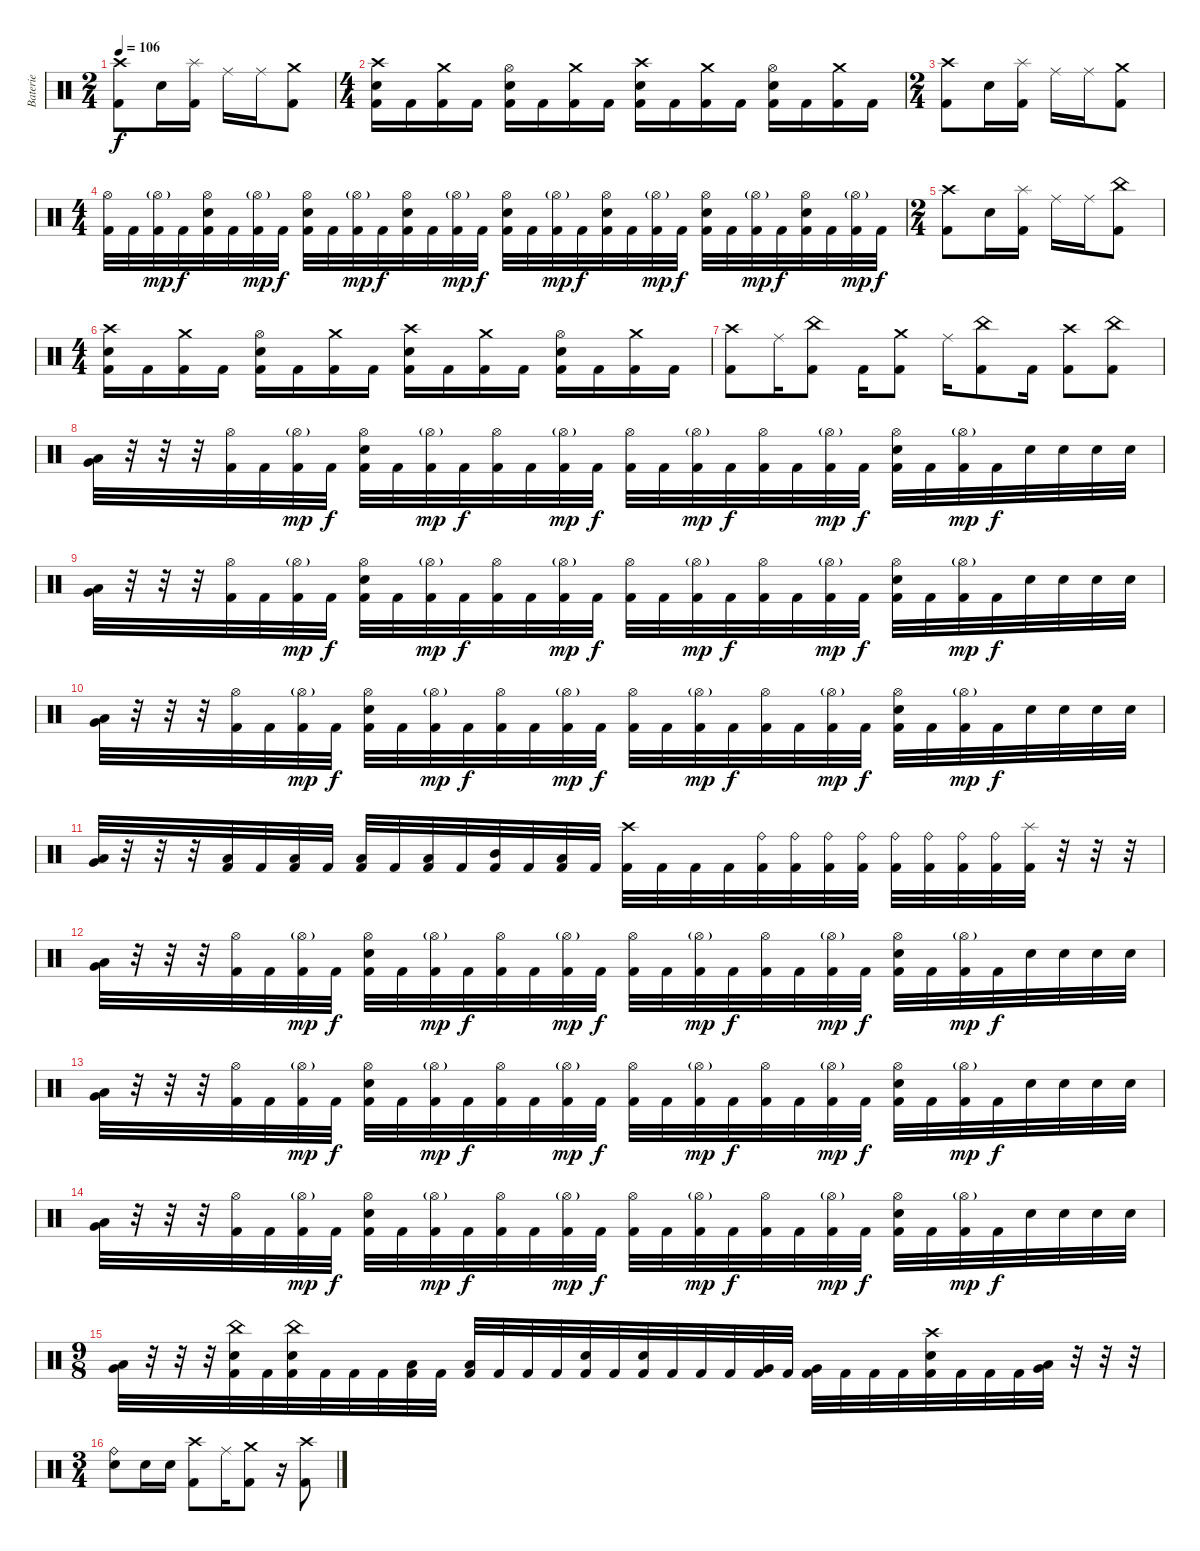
\track ("Baterie" "Baterie") {instrument percussion}
\staff {score}
\articulation defaults
\ts (2 4)
\tempo 106
\clef neutral
\ks c
("Crash high (hit)" "Kick (hit) 2").8{dy f} "Electric Snare (hit)".16 ("Splash (hit)" "Kick (hit) 2").16 "Ride (middle)".16 "Ride (middle)".16 ("Crash medium (hit)" "Kick (hit) 2").8 |
\ts (4 4)
("Crash high (hit)" "Kick (hit) 2" "Electric Snare (hit)").16 "Kick (hit) 2".16 ("Crash medium (hit)" "Kick (hit) 2").16 "Kick (hit) 2".16 ("Hi-Hat (open)" "Kick (hit) 2" "Electric Snare (hit)").16 "Kick (hit) 2".16 ("Crash medium (hit)" "Kick (hit) 2").16 "Kick (hit) 2".16 ("Crash high (hit)" "Kick (hit) 2" "Electric Snare (hit)").16 "Kick (hit) 2".16 ("Crash medium (hit)" "Kick (hit) 2").16 "Kick (hit) 2".16 ("Hi-Hat (open)" "Kick (hit) 2" "Electric Snare (hit)").16 "Kick (hit) 2".16 ("Crash medium (hit)" "Kick (hit) 2").16 "Kick (hit) 2".16 |
\ts (2 4)
("Crash high (hit)" "Kick (hit) 2").8 "Electric Snare (hit)".16 ("Splash (hit)" "Kick (hit) 2").16 "Ride (middle)".16 "Ride (middle)".16 ("Crash medium (hit)" "Kick (hit) 2").8 |
\ts (4 4)
("Hi-Hat (open)" "Kick (hit) 2").32 "Kick (hit) 2".32 ("Hi-Hat (open)"{g} "Kick (hit) 2").32{dy mp} "Kick (hit) 2".32{dy f} ("Hi-Hat (open)" "Electric Snare (hit)" "Kick (hit) 2").32 "Kick (hit) 2".32 ("Hi-Hat (open)"{g} "Kick (hit) 2").32{dy mp} "Kick (hit) 2".32{dy f} ("Hi-Hat (open)" "Electric Snare (hit)" "Kick (hit) 2").32 "Kick (hit) 2".32 ("Hi-Hat (open)"{g} "Kick (hit) 2").32{dy mp} "Kick (hit) 2".32{dy f} ("Hi-Hat (open)" "Electric Snare (hit)" "Kick (hit) 2").32 "Kick (hit) 2".32 ("Hi-Hat (open)"{g} "Kick (hit) 2").32{dy mp} "Kick (hit) 2".32{dy f} ("Hi-Hat (open)" "Electric Snare (hit)" "Kick (hit) 2").32 "Kick (hit) 2".32 ("Hi-Hat (open)"{g} "Kick (hit) 2").32{dy mp} "Kick (hit) 2".32{dy f} ("Hi-Hat (open)" "Electric Snare (hit)" "Kick (hit) 2").32 "Kick (hit) 2".32 ("Hi-Hat (open)"{g} "Kick (hit) 2").32{dy mp} "Kick (hit) 2".32{dy f} ("Hi-Hat (open)" "Electric Snare (hit)" "Kick (hit) 2").32 "Kick (hit) 2".32 ("Hi-Hat (open)"{g} "Kick (hit) 2").32{dy mp} "Kick (hit) 2".32{dy f} ("Hi-Hat (open)" "Electric Snare (hit)" "Kick (hit) 2").32 "Kick (hit) 2".32 ("Hi-Hat (open)"{g} "Kick (hit) 2").32{dy mp} "Kick (hit) 2".32{dy f} |
\ts (2 4)
("Crash high (hit)" "Kick (hit) 2").8 "Electric Snare (hit)".16 ("Splash (hit)" "Kick (hit) 2").16 "Ride (middle)".16 "Ride (middle)".16 ("China (hit)" "Kick (hit) 2").8 |
\ts (4 4)
("Crash high (hit)" "Kick (hit) 2" "Electric Snare (hit)").16 "Kick (hit) 2".16 ("Crash medium (hit)" "Kick (hit) 2").16 "Kick (hit) 2".16 ("Hi-Hat (open)" "Kick (hit) 2" "Electric Snare (hit)").16 "Kick (hit) 2".16 ("Crash medium (hit)" "Kick (hit) 2").16 "Kick (hit) 2".16 ("Crash high (hit)" "Kick (hit) 2" "Electric Snare (hit)").16 "Kick (hit) 2".16 ("Crash medium (hit)" "Kick (hit) 2").16 "Kick (hit) 2".16 ("Hi-Hat (open)" "Kick (hit) 2" "Electric Snare (hit)").16 "Kick (hit) 2".16 ("Crash medium (hit)" "Kick (hit) 2").16 "Kick (hit) 2".16 |
("Crash high (hit)" "Kick (hit) 2").8 "Ride (middle)".16 ("China (hit)" "Kick (hit) 2").8 "Kick (hit) 2".16 ("Crash medium (hit)" "Kick (hit) 2").8 "Ride (middle)".16 ("China (hit)" "Kick (hit) 2").8 "Kick (hit) 2".16 ("Crash high (hit)" "Kick (hit) 2").8 ("China (hit)" "Kick (hit) 2").8 |
("Very Low Tom (hit)" "Low Tom (hit)").32 r.32 r.32 r.32 ("Hi-Hat (open)" "Kick (hit) 2").32 "Kick (hit) 2".32 ("Hi-Hat (open)"{g} "Kick (hit) 2").32{dy mp} "Kick (hit) 2".32{dy f} ("Hi-Hat (open)" "Electric Snare (hit)" "Kick (hit) 2").32 "Kick (hit) 2".32 ("Hi-Hat (open)"{g} "Kick (hit) 2").32{dy mp} "Kick (hit) 2".32{dy f} ("Hi-Hat (open)" "Kick (hit) 2").32 "Kick (hit) 2".32 ("Hi-Hat (open)"{g} "Kick (hit) 2").32{dy mp} "Kick (hit) 2".32{dy f} ("Hi-Hat (open)" "Kick (hit) 2").32 "Kick (hit) 2".32 ("Hi-Hat (open)"{g} "Kick (hit) 2").32{dy mp} "Kick (hit) 2".32{dy f} ("Hi-Hat (open)" "Kick (hit) 2").32 "Kick (hit) 2".32 ("Hi-Hat (open)"{g} "Kick (hit) 2").32{dy mp} "Kick (hit) 2".32{dy f} ("Hi-Hat (open)" "Electric Snare (hit)" "Kick (hit) 2").32 "Kick (hit) 2".32 ("Hi-Hat (open)"{g} "Kick (hit) 2").32{dy mp} "Kick (hit) 2".32{dy f} "Electric Snare (hit)".32 "Electric Snare (hit)".32 "Electric Snare (hit)".32 "Electric Snare (hit)".32 |
("Very Low Tom (hit)" "Low Tom (hit)").32 r.32 r.32 r.32 ("Hi-Hat (open)" "Kick (hit) 2").32 "Kick (hit) 2".32 ("Hi-Hat (open)"{g} "Kick (hit) 2").32{dy mp} "Kick (hit) 2".32{dy f} ("Hi-Hat (open)" "Electric Snare (hit)" "Kick (hit) 2").32 "Kick (hit) 2".32 ("Hi-Hat (open)"{g} "Kick (hit) 2").32{dy mp} "Kick (hit) 2".32{dy f} ("Hi-Hat (open)" "Kick (hit) 2").32 "Kick (hit) 2".32 ("Hi-Hat (open)"{g} "Kick (hit) 2").32{dy mp} "Kick (hit) 2".32{dy f} ("Hi-Hat (open)" "Kick (hit) 2").32 "Kick (hit) 2".32 ("Hi-Hat (open)"{g} "Kick (hit) 2").32{dy mp} "Kick (hit) 2".32{dy f} ("Hi-Hat (open)" "Kick (hit) 2").32 "Kick (hit) 2".32 ("Hi-Hat (open)"{g} "Kick (hit) 2").32{dy mp} "Kick (hit) 2".32{dy f} ("Hi-Hat (open)" "Electric Snare (hit)" "Kick (hit) 2").32 "Kick (hit) 2".32 ("Hi-Hat (open)"{g} "Kick (hit) 2").32{dy mp} "Kick (hit) 2".32{dy f} "Electric Snare (hit)".32 "Electric Snare (hit)".32 "Electric Snare (hit)".32 "Electric Snare (hit)".32 |
("Very Low Tom (hit)" "Low Tom (hit)").32 r.32 r.32 r.32 ("Hi-Hat (open)" "Kick (hit) 2").32 "Kick (hit) 2".32 ("Hi-Hat (open)"{g} "Kick (hit) 2").32{dy mp} "Kick (hit) 2".32{dy f} ("Hi-Hat (open)" "Electric Snare (hit)" "Kick (hit) 2").32 "Kick (hit) 2".32 ("Hi-Hat (open)"{g} "Kick (hit) 2").32{dy mp} "Kick (hit) 2".32{dy f} ("Hi-Hat (open)" "Kick (hit) 2").32 "Kick (hit) 2".32 ("Hi-Hat (open)"{g} "Kick (hit) 2").32{dy mp} "Kick (hit) 2".32{dy f} ("Hi-Hat (open)" "Kick (hit) 2").32 "Kick (hit) 2".32 ("Hi-Hat (open)"{g} "Kick (hit) 2").32{dy mp} "Kick (hit) 2".32{dy f} ("Hi-Hat (open)" "Kick (hit) 2").32 "Kick (hit) 2".32 ("Hi-Hat (open)"{g} "Kick (hit) 2").32{dy mp} "Kick (hit) 2".32{dy f} ("Hi-Hat (open)" "Electric Snare (hit)" "Kick (hit) 2").32 "Kick (hit) 2".32 ("Hi-Hat (open)"{g} "Kick (hit) 2").32{dy mp} "Kick (hit) 2".32{dy f} "Electric Snare (hit)".32 "Electric Snare (hit)".32 "Electric Snare (hit)".32 "Electric Snare (hit)".32 |
("Very Low Tom (hit)" "Low Tom (hit)").32 r.32 r.32 r.32 ("Low Tom (hit)" "Kick (hit) 2").32 "Kick (hit) 2".32 ("Low Tom (hit)" "Kick (hit) 2").32 "Kick (hit) 2".32 ("Low Tom (hit)" "Kick (hit) 2").32 "Kick (hit) 2".32 ("Low Tom (hit)" "Kick (hit) 2").32 "Kick (hit) 2".32 ("Mid Tom (hit)" "Kick (hit) 2").32 "Kick (hit) 2".32 ("Low Tom (hit)" "Kick (hit) 2").32 "Kick (hit) 2".32 ("Crash high (hit)" "Kick (hit) 2").32 "Kick (hit) 2".32 "Kick (hit) 2".32 "Kick (hit) 2".32 ("Ride (bell)" "Kick (hit) 2").32 ("Ride (bell)" "Kick (hit) 2").32 ("Ride (bell)" "Kick (hit) 2").32 ("Ride (bell)" "Kick (hit) 2").32 ("Ride (bell)" "Kick (hit) 2").32 ("Ride (bell)" "Kick (hit) 2").32 ("Ride (bell)" "Kick (hit) 2").32 ("Ride (bell)" "Kick (hit) 2").32 ("Splash (hit)" "Kick (hit) 2").32 r.32 r.32 r.32 |
("Very Low Tom (hit)" "Low Tom (hit)").32 r.32 r.32 r.32 ("Hi-Hat (open)" "Kick (hit) 2").32 "Kick (hit) 2".32 ("Hi-Hat (open)"{g} "Kick (hit) 2").32{dy mp} "Kick (hit) 2".32{dy f} ("Hi-Hat (open)" "Electric Snare (hit)" "Kick (hit) 2").32 "Kick (hit) 2".32 ("Hi-Hat (open)"{g} "Kick (hit) 2").32{dy mp} "Kick (hit) 2".32{dy f} ("Hi-Hat (open)" "Kick (hit) 2").32 "Kick (hit) 2".32 ("Hi-Hat (open)"{g} "Kick (hit) 2").32{dy mp} "Kick (hit) 2".32{dy f} ("Hi-Hat (open)" "Kick (hit) 2").32 "Kick (hit) 2".32 ("Hi-Hat (open)"{g} "Kick (hit) 2").32{dy mp} "Kick (hit) 2".32{dy f} ("Hi-Hat (open)" "Kick (hit) 2").32 "Kick (hit) 2".32 ("Hi-Hat (open)"{g} "Kick (hit) 2").32{dy mp} "Kick (hit) 2".32{dy f} ("Hi-Hat (open)" "Electric Snare (hit)" "Kick (hit) 2").32 "Kick (hit) 2".32 ("Hi-Hat (open)"{g} "Kick (hit) 2").32{dy mp} "Kick (hit) 2".32{dy f} "Electric Snare (hit)".32 "Electric Snare (hit)".32 "Electric Snare (hit)".32 "Electric Snare (hit)".32 |
("Very Low Tom (hit)" "Low Tom (hit)").32 r.32 r.32 r.32 ("Hi-Hat (open)" "Kick (hit) 2").32 "Kick (hit) 2".32 ("Hi-Hat (open)"{g} "Kick (hit) 2").32{dy mp} "Kick (hit) 2".32{dy f} ("Hi-Hat (open)" "Electric Snare (hit)" "Kick (hit) 2").32 "Kick (hit) 2".32 ("Hi-Hat (open)"{g} "Kick (hit) 2").32{dy mp} "Kick (hit) 2".32{dy f} ("Hi-Hat (open)" "Kick (hit) 2").32 "Kick (hit) 2".32 ("Hi-Hat (open)"{g} "Kick (hit) 2").32{dy mp} "Kick (hit) 2".32{dy f} ("Hi-Hat (open)" "Kick (hit) 2").32 "Kick (hit) 2".32 ("Hi-Hat (open)"{g} "Kick (hit) 2").32{dy mp} "Kick (hit) 2".32{dy f} ("Hi-Hat (open)" "Kick (hit) 2").32 "Kick (hit) 2".32 ("Hi-Hat (open)"{g} "Kick (hit) 2").32{dy mp} "Kick (hit) 2".32{dy f} ("Hi-Hat (open)" "Electric Snare (hit)" "Kick (hit) 2").32 "Kick (hit) 2".32 ("Hi-Hat (open)"{g} "Kick (hit) 2").32{dy mp} "Kick (hit) 2".32{dy f} "Electric Snare (hit)".32 "Electric Snare (hit)".32 "Electric Snare (hit)".32 "Electric Snare (hit)".32 |
("Very Low Tom (hit)" "Low Tom (hit)").32 r.32 r.32 r.32 ("Hi-Hat (open)" "Kick (hit) 2").32 "Kick (hit) 2".32 ("Hi-Hat (open)"{g} "Kick (hit) 2").32{dy mp} "Kick (hit) 2".32{dy f} ("Hi-Hat (open)" "Electric Snare (hit)" "Kick (hit) 2").32 "Kick (hit) 2".32 ("Hi-Hat (open)"{g} "Kick (hit) 2").32{dy mp} "Kick (hit) 2".32{dy f} ("Hi-Hat (open)" "Kick (hit) 2").32 "Kick (hit) 2".32 ("Hi-Hat (open)"{g} "Kick (hit) 2").32{dy mp} "Kick (hit) 2".32{dy f} ("Hi-Hat (open)" "Kick (hit) 2").32 "Kick (hit) 2".32 ("Hi-Hat (open)"{g} "Kick (hit) 2").32{dy mp} "Kick (hit) 2".32{dy f} ("Hi-Hat (open)" "Kick (hit) 2").32 "Kick (hit) 2".32 ("Hi-Hat (open)"{g} "Kick (hit) 2").32{dy mp} "Kick (hit) 2".32{dy f} ("Hi-Hat (open)" "Electric Snare (hit)" "Kick (hit) 2").32 "Kick (hit) 2".32 ("Hi-Hat (open)"{g} "Kick (hit) 2").32{dy mp} "Kick (hit) 2".32{dy f} "Electric Snare (hit)".32 "Electric Snare (hit)".32 "Electric Snare (hit)".32 "Electric Snare (hit)".32 |
\ts (9 8)
("Very Low Tom (hit)" "Low Tom (hit)").32 r.32 r.32 r.32 ("China (hit)" "Electric Snare (hit)" "Kick (hit) 2").32 "Kick (hit) 2".32 ("China (hit)" "Electric Snare (hit)" "Kick (hit) 2").32 "Kick (hit) 2".32 "Kick (hit) 2".32 "Kick (hit) 2".32 ("Low Tom (hit)" "Kick (hit) 2").32 "Kick (hit) 2".32 ("Low Tom (hit)" "Kick (hit) 2").32 "Kick (hit) 2".32 "Kick (hit) 2".32 "Kick (hit) 2".32 ("Electric Snare (hit)" "Kick (hit) 2").32 "Kick (hit) 2".32 ("Electric Snare (hit)" "Kick (hit) 2").32 "Kick (hit) 2".32 "Kick (hit) 2".32 "Kick (hit) 2".32 ("Very Low Tom (hit)" "Kick (hit) 2").32 "Kick (hit) 2".32 ("Very Low Tom (hit)" "Kick (hit) 2").32 "Kick (hit) 2".32 "Kick (hit) 2".32 "Kick (hit) 2".32 ("Crash high (hit)" "Electric Snare (hit)" "Kick (hit) 2").32 "Kick (hit) 2".32 "Kick (hit) 2".32 "Kick (hit) 2".32 ("Very Low Tom (hit)" "Low Tom (hit)").32 r.32 r.32 r.32 |
\ts (3 4)
("Electric Snare (hit)" "Ride (bell)").8 "Electric Snare (hit)".16 "Electric Snare (hit)".16 ("Crash high (hit)" "Kick (hit) 2").8 "Ride (middle)".16 ("Crash medium (hit)" "Kick (hit) 2").8 r.16 ("Crash high (hit)" "Kick (hit) 2").8
